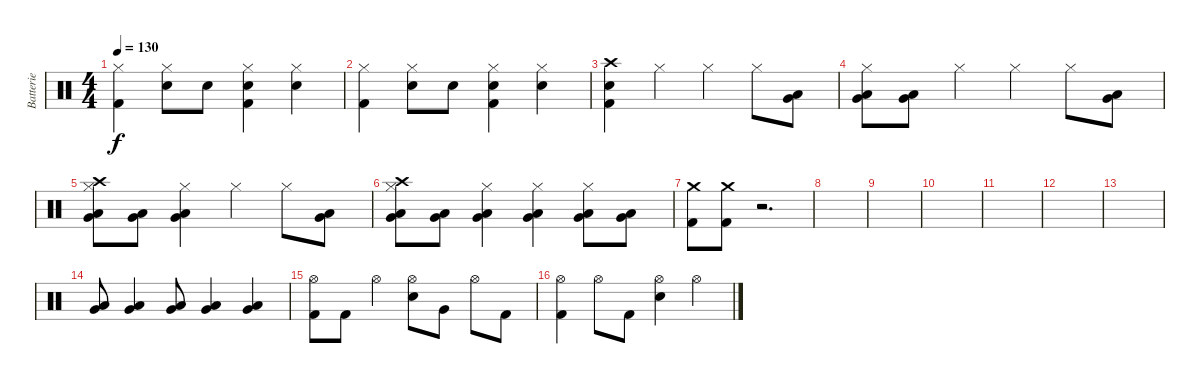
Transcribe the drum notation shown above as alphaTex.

\track ("Batterie" "Batterie") {instrument percussion}
\staff {score}
\articulation defaults
\ts (4 4)
\tempo 130
\clef neutral
\ks c
("Hi-Hat (closed)" "Kick (hit) 2").4{dy f} ("Hi-Hat (closed)" "Metronome (bell)").8 "Metronome (bell)".8 ("Hi-Hat (closed)" "Electric Snare (hit)" "Kick (hit) 2").4 ("Hi-Hat (closed)" "Snare (hit) 2").4 |
("Hi-Hat (closed)" "Kick (hit) 2").4 ("Hi-Hat (closed)" "Metronome (bell)").8 "Metronome (bell)".8 ("Hi-Hat (closed)" "Electric Snare (hit)" "Kick (hit) 2").4 ("Hi-Hat (closed)" "Snare (hit) 2").4 |
("Crash high (hit)" "Electric Snare (hit)" "Kick (hit) 2").4 "Hi-Hat (closed)".4 "Hi-Hat (closed)".4 "Hi-Hat (closed)".8 ("Very Low Tom (hit)" "Low Tom (hit)").8 |
("Hi-Hat (closed)" "Very Low Tom (hit)" "Low Tom (hit)").8 ("Very Low Tom (hit)" "Low Tom (hit)").8 "Hi-Hat (closed)".4 "Hi-Hat (closed)".4 "Hi-Hat (closed)".8 ("Very Low Tom (hit)" "Low Tom (hit)").8 |
("Crash high (hit)" "Hi-Hat (closed)" "Very Low Tom (hit)" "Low Tom (hit)").8 ("Very Low Tom (hit)" "Low Tom (hit)").8 ("Hi-Hat (closed)" "Very Low Tom (hit)" "Low Tom (hit)").4 "Hi-Hat (closed)".4 "Hi-Hat (closed)".8 ("Very Low Tom (hit)" "Low Tom (hit)").8 |
("Crash high (hit)" "Hi-Hat (closed)" "Very Low Tom (hit)" "Low Tom (hit)").8 ("Very Low Tom (hit)" "Low Tom (hit)").8 ("Hi-Hat (closed)" "Very Low Tom (hit)" "Low Tom (hit)").4 ("Hi-Hat (closed)" "Very Low Tom (hit)" "Low Tom (hit)").4 ("Hi-Hat (closed)" "Very Low Tom (hit)" "Low Tom (hit)").8 ("Very Low Tom (hit)" "Low Tom (hit)").8 |
("Crash medium (hit)" "Kick (hit) 2").8 ("Crash medium (hit)" "Kick (hit) 2").8 r.2{d} |
|
|
|
|
|
|
("Very Low Tom (hit)" "Low Tom (hit)").8 ("Very Low Tom (hit)" "Low Tom (hit)").4 ("Very Low Tom (hit)" "Low Tom (hit)").8 ("Very Low Tom (hit)" "Low Tom (hit)").4 ("Very Low Tom (hit)" "Low Tom (hit)").4 |
("Hi-Hat (open)" "Kick (hit) 2").8 "Kick (hit) 2".8 "Hi-Hat (open)".4 ("Hi-Hat (open)" "Electric Snare (hit)").8 "Very Low Tom (hit)".8 "Hi-Hat (open)".8 "Kick (hit) 2".8 |
("Hi-Hat (open)" "Kick (hit) 2").4 "Hi-Hat (open)".8 "Kick (hit) 2".8 ("Hi-Hat (open)" "Electric Snare (hit)").4 "Hi-Hat (open)".4
